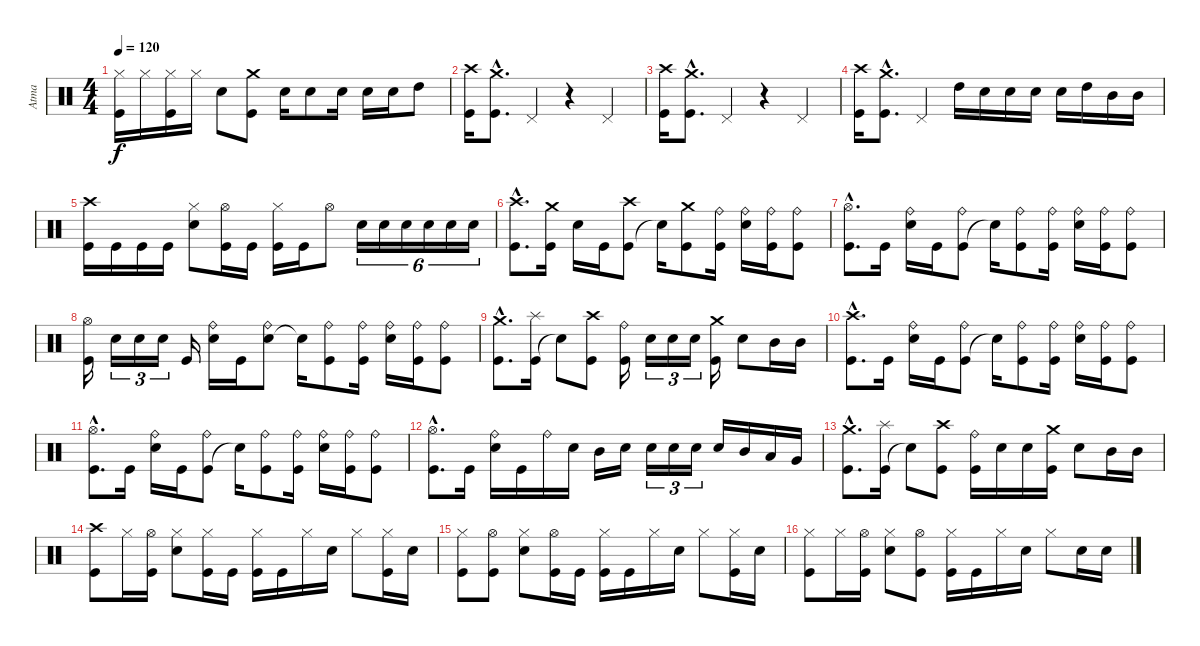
\track ("Atma" "Atma") {instrument percussion}
\staff {score}
\articulation defaults
\ts (4 4)
\tempo 120
\clef neutral
\ks c
("Kick (hit)" "Hi-Hat (closed)").16{dy f} "Hi-Hat (closed)".16 ("Kick (hit)" "Hi-Hat (closed)").16 "Hi-Hat (closed)".16 "Snare (hit) 2".8 ("Kick (hit)" "Crash medium (hit)").8 "Snare (hit) 2".16 "Snare (hit) 2".8 "Snare (hit) 2".16 "Snare (hit) 2".16 "Snare (hit) 2".16 "High Tom (hit)".8 |
("Kick (hit)" "Crash high (hit)").16 ("Kick (hit)"{hac} "Crash medium (hit)"{hac}).8{d} "Pedal Hi-Hat (hit)".4 r.4 "Pedal Hi-Hat (hit)".4 |
("Kick (hit)" "Crash high (hit)").16 ("Kick (hit)"{hac} "Crash medium (hit)"{hac}).8{d} "Pedal Hi-Hat (hit)".4 r.4 "Pedal Hi-Hat (hit)".4 |
("Kick (hit)" "Crash high (hit)").16 ("Kick (hit)"{hac} "Crash medium (hit)"{hac}).8{d} "Pedal Hi-Hat (hit)".4 "High Tom (hit)".16 "Snare (hit) 2".16 "Snare (hit) 2".16 "Snare (hit) 2".16 "Snare (hit) 2".16 "High Tom (hit)".16 "Mid Tom (hit)".16 "Mid Tom (hit)".16 |
("Kick (hit)" "Crash high (hit)").16 "Kick (hit)".16 "Kick (hit)".16 "Kick (hit)".16 ("Snare (hit) 2" "Hi-Hat (closed)").8 ("Kick (hit)" "Hi-Hat (open)").16 "Kick (hit)".16 ("Kick (hit)" "Hi-Hat (closed)").16 "Kick (hit)".16 "Hi-Hat (open)".8 "Snare (hit) 2".16{tu (6 4)} "Snare (hit) 2".16{tu (6 4)} "Snare (hit) 2".16{tu (6 4)} "Snare (hit) 2".16{tu (6 4)} "Snare (hit) 2".16{tu (6 4)} "Snare (hit) 2".16{tu (6 4)} |
("Kick (hit)"{hac} "Crash high (hit)"{hac}).8{d} ("Kick (hit)" "Crash medium (hit)").16 "Snare (hit) 2".16 "Kick (hit)".16 ("Kick (hit)" "Crash high (hit)").8 "Snare (hit)"{t}.16 ("Kick (hit)" "Crash medium (hit)").8 ("Kick (hit)" "Ride (bell)").16 ("Snare (hit) 2" "Ride (bell)").16 ("Kick (hit)" "Ride (bell)").16 ("Kick (hit)" "Ride (bell)").8 |
("Kick (hit)"{hac} "Hi-Hat (open)"{hac}).8{d} "Kick (hit)".16 ("Snare (hit) 2" "Ride (bell)").16 "Kick (hit)".16 ("Kick (hit)" "Ride (bell)").8 "Snare (hit)"{t}.16 ("Kick (hit)" "Ride (bell)").8 ("Kick (hit)" "Ride (bell)").16 ("Snare (hit) 2" "Ride (bell)").16 ("Kick (hit)" "Ride (bell)").16 ("Kick (hit)" "Ride (bell)").8 |
("Kick (hit)" "Hi-Hat (open)").16 "Snare (hit) 2".16{tu (3 2)} "Snare (hit) 2".16{tu (3 2)} "Snare (hit) 2".16{tu (3 2)} "Kick (hit)".16 ("Snare (hit) 2" "Ride (bell)").16 "Kick (hit)".16 ("Snare (hit) 2" "Ride (bell)").8 "Snare (hit)"{t}.16 ("Kick (hit)" "Ride (bell)").8 ("Kick (hit)" "Ride (bell)").16 ("Snare (hit) 2" "Ride (bell)").16 ("Kick (hit)" "Ride (bell)").16 ("Kick (hit)" "Ride (bell)").8 |
("Kick (hit)"{hac} "Crash medium (hit)"{hac}).8{d} ("Kick (hit)" "Splash (hit)").16 "Snare (hit)"{t}.8 ("Kick (hit)" "Crash high (hit)").8 ("Kick (hit)" "Ride (bell)").16 "Snare (hit) 2".16{tu (3 2)} "Snare (hit) 2".16{tu (3 2)} "Snare (hit) 2".16{tu (3 2)} ("Kick (hit)" "Crash medium (hit)").16 "Snare (hit) 2".8 "Mid Tom (hit)".16 "Mid Tom (hit)".16 |
("Kick (hit)"{hac} "Crash high (hit)"{hac}).8{d} "Kick (hit)".16 ("Snare (hit) 2" "Ride (bell)").16 "Kick (hit)".16 ("Kick (hit)" "Ride (bell)").8 "Snare (hit)"{t}.16 ("Kick (hit)" "Ride (bell)").8 ("Kick (hit)" "Ride (bell)").16 ("Snare (hit) 2" "Ride (bell)").16 ("Kick (hit)" "Ride (bell)").16 ("Kick (hit)" "Ride (bell)").8 |
("Kick (hit)"{hac} "Hi-Hat (open)"{hac}).8{d} "Kick (hit)".16 ("Snare (hit) 2" "Ride (bell)").16 "Kick (hit)".16 ("Kick (hit)" "Ride (bell)").8 "Snare (hit)"{t}.16 ("Kick (hit)" "Ride (bell)").8 ("Kick (hit)" "Ride (bell)").16 ("Snare (hit) 2" "Ride (bell)").16 ("Kick (hit)" "Ride (bell)").16 ("Kick (hit)" "Ride (bell)").8 |
("Kick (hit)"{hac} "Hi-Hat (open)"{hac}).8{d} "Kick (hit)".16 ("Snare (hit) 2" "Ride (bell)").16 "Kick (hit)".16 "Ride (bell)".16 "Snare (hit) 2".16 "Mid Tom (hit)".16 "Snare (hit) 2".16 "Snare (hit) 2".16{tu (3 2)} "Snare (hit) 2".16{tu (3 2)} "Snare (hit) 2".16{tu (3 2)} "Snare (hit) 2".16 "Mid Tom (hit)".16 "Low Tom (hit)".16 "Very Low Tom (hit)".16 |
("Kick (hit)"{hac} "Crash medium (hit)"{hac}).8{d} ("Kick (hit)" "Splash (hit)").16 "Snare (hit)"{t}.8 ("Kick (hit)" "Crash high (hit)").8 ("Kick (hit)" "Ride (bell)").16 "Snare (hit) 2".16 "Snare (hit) 2".16 ("Kick (hit)" "Crash medium (hit)").16 "Snare (hit) 2".8 "Mid Tom (hit)".16 "Mid Tom (hit)".16 |
("Kick (hit)" "Crash high (hit)").8 "Hi-Hat (closed)".16 ("Kick (hit)" "Hi-Hat (open)").16 ("Snare (hit) 2" "Hi-Hat (closed)").8 ("Kick (hit)" "Hi-Hat (closed)").16 "Kick (hit)".16 ("Kick (hit)" "Hi-Hat (closed)").16 "Kick (hit)".16 "Hi-Hat (closed)".16 "Snare (hit) 2".16 "Hi-Hat (closed)".8 ("Kick (hit)" "Hi-Hat (closed)").16 "Snare (hit) 2".16 |
("Kick (hit)" "Hi-Hat (closed)").8 ("Kick (hit)" "Hi-Hat (open)").8 ("Snare (hit) 2" "Hi-Hat (closed)").8 ("Kick (hit)" "Hi-Hat (open)").16 "Kick (hit)".16 ("Kick (hit)" "Hi-Hat (closed)").16 "Kick (hit)".16 "Hi-Hat (closed)".16 "Snare (hit) 2".16 "Hi-Hat (closed)".8 ("Kick (hit)" "Hi-Hat (closed)").16 "Snare (hit) 2".16 |
("Kick (hit)" "Hi-Hat (closed)").8 "Hi-Hat (closed)".16 ("Kick (hit)" "Hi-Hat (open)").16 ("Snare (hit) 2" "Hi-Hat (closed)").8 ("Kick (hit)" "Hi-Hat (open)").8 ("Kick (hit)" "Hi-Hat (closed)").16 "Kick (hit)".16 "Hi-Hat (closed)".16 "Snare (hit) 2".16 "Hi-Hat (closed)".8 "Snare (hit) 2".16 "Snare (hit) 2".16
